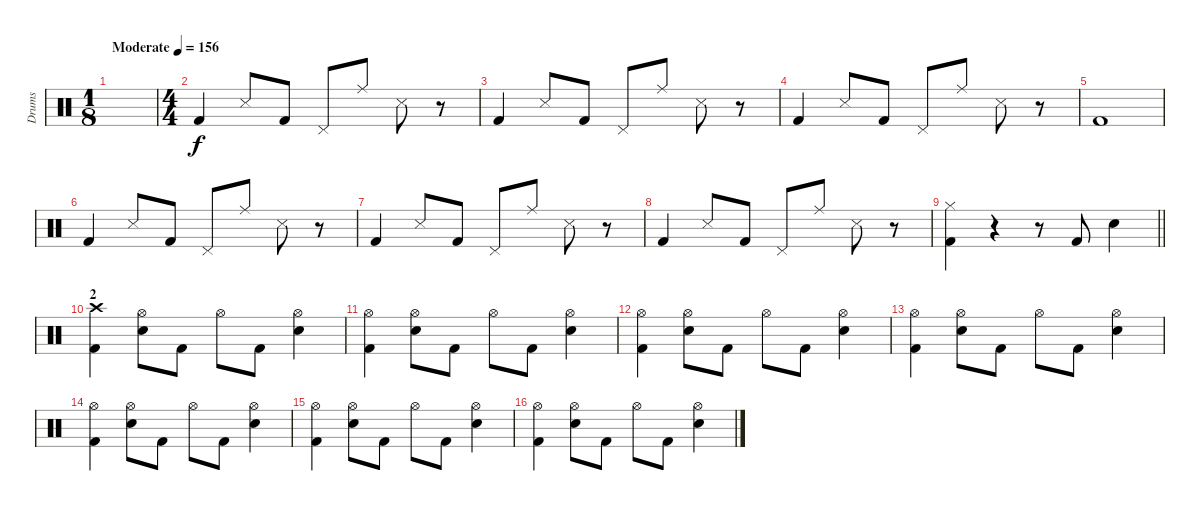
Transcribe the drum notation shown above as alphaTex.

\track ("Drums" "Drums") {instrument percussion}
\staff {score}
\articulation defaults
\ts (1 8)
\tempo (156 "Moderate")
\clef neutral
\ks c
|
\ts (4 4)
"Kick (hit) 2".4 "Snare (side stick) 3".8 "Kick (hit) 2".8 "Pedal Hi-Hat (hit)".8 "Ride (middle)".8 "Snare (side stick) 3".8 r.8 |
"Kick (hit) 2".4 "Snare (side stick) 3".8 "Kick (hit) 2".8 "Pedal Hi-Hat (hit)".8 "Ride (middle)".8 "Snare (side stick) 3".8 r.8 |
"Kick (hit) 2".4 "Snare (side stick) 3".8 "Kick (hit) 2".8 "Pedal Hi-Hat (hit)".8 "Ride (middle)".8 "Snare (side stick) 3".8 r.8 |
"Kick (hit) 2".1 |
"Kick (hit) 2".4 "Snare (side stick) 3".8 "Kick (hit) 2".8 "Pedal Hi-Hat (hit)".8 "Ride (middle)".8 "Snare (side stick) 3".8 r.8 |
"Kick (hit) 2".4 "Snare (side stick) 3".8 "Kick (hit) 2".8 "Pedal Hi-Hat (hit)".8 "Ride (middle)".8 "Snare (side stick) 3".8 r.8 |
"Kick (hit) 2".4 "Snare (side stick) 3".8 "Kick (hit) 2".8 "Pedal Hi-Hat (hit)".8 "Ride (middle)".8 "Snare (side stick) 3".8 r.8 |
\barLineRight lightlight
("Hi-Hat (closed)" "Kick (hit) 2").4 r.4 r.8 "Kick (hit) 2".8 "Snare (hit) 2".4 |
\section ("" "2")
("Crash high (hit)" "Kick (hit) 2").4 ("Hi-Hat (open)" "Snare (hit) 2").8 "Kick (hit) 2".8 "Hi-Hat (open)".8 "Kick (hit) 2".8 ("Hi-Hat (open)" "Snare (hit) 2").4 |
("Hi-Hat (open)" "Kick (hit) 2").4 ("Hi-Hat (open)" "Snare (hit) 2").8 "Kick (hit) 2".8 "Hi-Hat (open)".8 "Kick (hit) 2".8 ("Hi-Hat (open)" "Snare (hit) 2").4 |
("Hi-Hat (open)" "Kick (hit) 2").4 ("Hi-Hat (open)" "Snare (hit) 2").8 "Kick (hit) 2".8 "Hi-Hat (open)".8 "Kick (hit) 2".8 ("Hi-Hat (open)" "Snare (hit) 2").4 |
("Hi-Hat (open)" "Kick (hit) 2").4 ("Hi-Hat (open)" "Snare (hit) 2").8 "Kick (hit) 2".8 "Hi-Hat (open)".8 "Kick (hit) 2".8 ("Hi-Hat (open)" "Snare (hit) 2").4 |
("Hi-Hat (open)" "Kick (hit) 2").4 ("Hi-Hat (open)" "Snare (hit) 2").8 "Kick (hit) 2".8 "Hi-Hat (open)".8 "Kick (hit) 2".8 ("Hi-Hat (open)" "Snare (hit) 2").4 |
("Hi-Hat (open)" "Kick (hit) 2").4 ("Hi-Hat (open)" "Snare (hit) 2").8 "Kick (hit) 2".8 "Hi-Hat (open)".8 "Kick (hit) 2".8 ("Hi-Hat (open)" "Snare (hit) 2").4 |
("Hi-Hat (open)" "Kick (hit) 2").4 ("Hi-Hat (open)" "Snare (hit) 2").8 "Kick (hit) 2".8 "Hi-Hat (open)".8 "Kick (hit) 2".8 ("Hi-Hat (open)" "Snare (hit) 2").4
